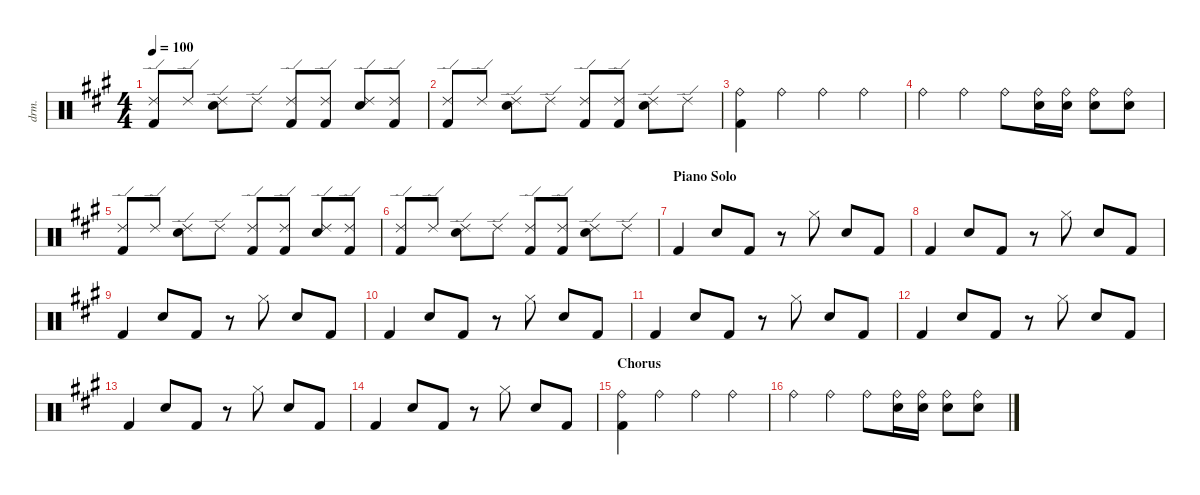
\defaultSystemsLayout 4
\hideDynamics
\bracketExtendMode nobrackets
\otherSystemsTrackNameOrientation horizontal
\track ("Drums" "drm.") {instrument percussion}
\staff {score}
\articulation defaults
\ts (4 4)
\tempo 100
\clef neutral
\ks a
("Ride (edge) 2"{acc forcenatural} "Kick (hit) 2"{acc forcenatural}).8{dy f} "Ride (edge) 2"{acc forcenatural}.8 ("Ride (edge) 2"{acc forcenatural} "Snare (hit) 2"{acc forcenatural}).8 "Ride (edge) 2"{acc forcenatural}.8 ("Ride (edge) 2"{acc forcenatural} "Kick (hit) 2"{acc forcenatural}).8 ("Ride (edge) 2"{acc forcenatural} "Kick (hit) 2"{acc forcenatural}).8 ("Ride (edge) 2"{acc forcenatural} "Snare (hit) 2"{acc forcenatural}).8 ("Ride (edge) 2"{acc forcenatural} "Kick (hit) 2"{acc forcenatural}).8 |
("Ride (edge) 2"{acc forcenatural} "Kick (hit) 2"{acc forcenatural}).8 "Ride (edge) 2"{acc forcenatural}.8 ("Ride (edge) 2"{acc forcenatural} "Snare (hit) 2"{acc forcenatural}).8 "Ride (edge) 2"{acc forcenatural}.8 ("Ride (edge) 2"{acc forcenatural} "Kick (hit) 2"{acc forcenatural}).8 ("Ride (edge) 2"{acc forcenatural} "Kick (hit) 2"{acc forcenatural}).8 ("Ride (edge) 2"{acc forcenatural} "Snare (hit) 2"{acc forcenatural}).8 "Ride (edge) 2"{acc forcenatural}.8 |
("Ride (bell)"{acc forcenatural} "Kick (hit) 2"{acc forcenatural}).4 "Ride (bell)"{acc forcenatural}.4 "Ride (bell)"{acc forcenatural}.4 "Ride (bell)"{acc forcenatural}.4 |
"Ride (bell)"{acc forcenatural}.4 "Ride (bell)"{acc forcenatural}.4 "Ride (bell)"{acc forcenatural}.8 ("Ride (bell)"{acc forcenatural} "Snare (hit) 2"{acc forcenatural}).16 ("Ride (bell)"{acc forcenatural} "Snare (hit) 2"{acc forcenatural}).16 ("Ride (bell)"{acc forcenatural} "Snare (hit) 2"{acc forcenatural}).8 ("Ride (bell)"{acc forcenatural} "Snare (hit) 2"{acc forcenatural}).8 |
("Ride (edge) 2"{acc forcenatural} "Kick (hit) 2"{acc forcenatural}).8 "Ride (edge) 2"{acc forcenatural}.8 ("Ride (edge) 2"{acc forcenatural} "Snare (hit) 2"{acc forcenatural}).8 "Ride (edge) 2"{acc forcenatural}.8 ("Ride (edge) 2"{acc forcenatural} "Kick (hit) 2"{acc forcenatural}).8 ("Ride (edge) 2"{acc forcenatural} "Kick (hit) 2"{acc forcenatural}).8 ("Ride (edge) 2"{acc forcenatural} "Snare (hit) 2"{acc forcenatural}).8 ("Ride (edge) 2"{acc forcenatural} "Kick (hit) 2"{acc forcenatural}).8 |
("Ride (edge) 2"{acc forcenatural} "Kick (hit) 2"{acc forcenatural}).8 "Ride (edge) 2"{acc forcenatural}.8 ("Ride (edge) 2"{acc forcenatural} "Snare (hit) 2"{acc forcenatural}).8 "Ride (edge) 2"{acc forcenatural}.8 ("Ride (edge) 2"{acc forcenatural} "Kick (hit) 2"{acc forcenatural}).8 ("Ride (edge) 2"{acc forcenatural} "Kick (hit) 2"{acc forcenatural}).8 ("Ride (edge) 2"{acc forcenatural} "Snare (hit) 2"{acc forcenatural}).8 "Ride (edge) 2"{acc forcenatural}.8 |
\section ("" "Piano Solo")
"Kick (hit) 2"{acc forcenatural}.4 "Snare (hit) 2"{acc forcenatural}.8 "Kick (hit) 2"{acc forcenatural}.8 r.8 "Hi-Hat (closed)"{acc forcenatural}.8 "Snare (hit) 2"{acc forcenatural}.8 "Kick (hit) 2"{acc forcenatural}.8 |
"Kick (hit) 2"{acc forcenatural}.4 "Snare (hit) 2"{acc forcenatural}.8 "Kick (hit) 2"{acc forcenatural}.8 r.8 "Hi-Hat (closed)"{acc forcenatural}.8 "Snare (hit) 2"{acc forcenatural}.8 "Kick (hit) 2"{acc forcenatural}.8 |
"Kick (hit) 2"{acc forcenatural}.4 "Snare (hit) 2"{acc forcenatural}.8 "Kick (hit) 2"{acc forcenatural}.8 r.8 "Hi-Hat (closed)"{acc forcenatural}.8 "Snare (hit) 2"{acc forcenatural}.8 "Kick (hit) 2"{acc forcenatural}.8 |
"Kick (hit) 2"{acc forcenatural}.4 "Snare (hit) 2"{acc forcenatural}.8 "Kick (hit) 2"{acc forcenatural}.8 r.8 "Hi-Hat (closed)"{acc forcenatural}.8 "Snare (hit) 2"{acc forcenatural}.8 "Kick (hit) 2"{acc forcenatural}.8 |
"Kick (hit) 2"{acc forcenatural}.4 "Snare (hit) 2"{acc forcenatural}.8 "Kick (hit) 2"{acc forcenatural}.8 r.8 "Hi-Hat (closed)"{acc forcenatural}.8 "Snare (hit) 2"{acc forcenatural}.8 "Kick (hit) 2"{acc forcenatural}.8 |
"Kick (hit) 2"{acc forcenatural}.4 "Snare (hit) 2"{acc forcenatural}.8 "Kick (hit) 2"{acc forcenatural}.8 r.8 "Hi-Hat (closed)"{acc forcenatural}.8 "Snare (hit) 2"{acc forcenatural}.8 "Kick (hit) 2"{acc forcenatural}.8 |
"Kick (hit) 2"{acc forcenatural}.4 "Snare (hit) 2"{acc forcenatural}.8 "Kick (hit) 2"{acc forcenatural}.8 r.8 "Hi-Hat (closed)"{acc forcenatural}.8 "Snare (hit) 2"{acc forcenatural}.8 "Kick (hit) 2"{acc forcenatural}.8 |
"Kick (hit) 2"{acc forcenatural}.4 "Snare (hit) 2"{acc forcenatural}.8 "Kick (hit) 2"{acc forcenatural}.8 r.8 "Hi-Hat (closed)"{acc forcenatural}.8 "Snare (hit) 2"{acc forcenatural}.8 "Kick (hit) 2"{acc forcenatural}.8 |
\section ("" "Chorus")
("Ride (bell)"{acc forcenatural} "Kick (hit) 2"{acc forcenatural}).4 "Ride (bell)"{acc forcenatural}.4 "Ride (bell)"{acc forcenatural}.4 "Ride (bell)"{acc forcenatural}.4 |
"Ride (bell)"{acc forcenatural}.4 "Ride (bell)"{acc forcenatural}.4 "Ride (bell)"{acc forcenatural}.8 ("Ride (bell)"{acc forcenatural} "Snare (hit) 2"{acc forcenatural}).16 ("Ride (bell)"{acc forcenatural} "Snare (hit) 2"{acc forcenatural}).16 ("Ride (bell)"{acc forcenatural} "Snare (hit) 2"{acc forcenatural}).8 ("Ride (bell)"{acc forcenatural} "Snare (hit) 2"{acc forcenatural}).8
